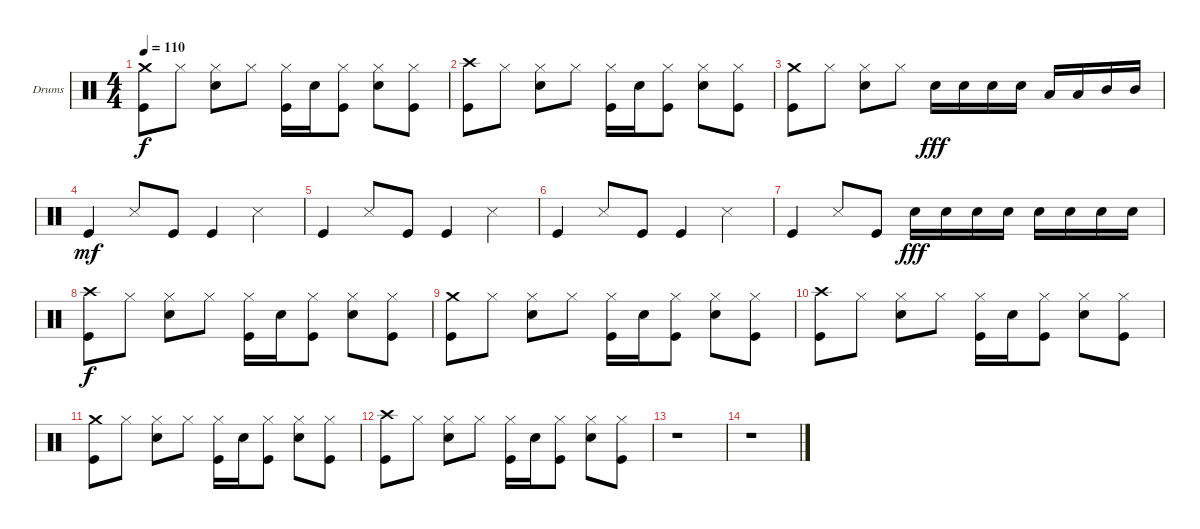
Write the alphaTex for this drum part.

\defaultSystemsLayout 4
\bracketExtendMode groupsimilarinstruments
\firstSystemTrackNameOrientation horizontal
\otherSystemsTrackNameOrientation horizontal
\track ("Drumkit" "Drums") {instrument percussion}
\staff {score}
\articulation defaults
\ts (4 4)
\tempo 110
\clef neutral
\ks c
("Kick (hit)" "Crash medium (hit)").8{dy f} "Hi-Hat (closed)".8 ("Hi-Hat (closed)" "Snare (hit) 2").8 "Hi-Hat (closed)".8 ("Hi-Hat (closed)" "Kick (hit)").16 "Snare (hit) 2".16 ("Hi-Hat (closed)" "Kick (hit)").8 ("Hi-Hat (closed)" "Snare (hit) 2").8 ("Hi-Hat (closed)" "Kick (hit)").8 |
("Kick (hit)" "Crash high (hit)").8 "Hi-Hat (closed)".8 ("Hi-Hat (closed)" "Snare (hit) 2").8 "Hi-Hat (closed)".8 ("Hi-Hat (closed)" "Kick (hit)").16 "Snare (hit) 2".16 ("Hi-Hat (closed)" "Kick (hit)").8 ("Hi-Hat (closed)" "Snare (hit) 2").8 ("Hi-Hat (closed)" "Kick (hit)").8 |
("Kick (hit)" "Crash medium (hit)").8 "Hi-Hat (closed)".8 ("Hi-Hat (closed)" "Snare (hit) 2").8 "Hi-Hat (closed)".8 "Snare (hit) 2".16{dy fff} "Snare (hit) 2".16 "Snare (hit) 2".16 "Snare (hit) 2".16 "Low Tom (hit)".16 "Low Tom (hit)".16 "Mid Tom (hit)".16 "Mid Tom (hit)".16 |
"Kick (hit)".4{dy mf} "Snare (side stick) 3".8 "Kick (hit)".8 "Kick (hit)".4 "Snare (side stick) 3".4 |
"Kick (hit)".4 "Snare (side stick) 3".8 "Kick (hit)".8 "Kick (hit)".4 "Snare (side stick) 3".4 |
"Kick (hit)".4 "Snare (side stick) 3".8 "Kick (hit)".8 "Kick (hit)".4 "Snare (side stick) 3".4 |
"Kick (hit)".4 "Snare (side stick) 3".8 "Kick (hit)".8 "Snare (hit) 2".16{dy fff} "Snare (hit) 2".16 "Snare (hit) 2".16 "Snare (hit) 2".16 "Snare (hit) 2".16 "Snare (hit) 2".16 "Snare (hit) 2".16 "Snare (hit) 2".16 |
("Kick (hit)" "Crash high (hit)").8{dy f} "Hi-Hat (closed)".8 ("Hi-Hat (closed)" "Snare (hit) 2").8 "Hi-Hat (closed)".8 ("Hi-Hat (closed)" "Kick (hit)").16 "Snare (hit) 2".16 ("Hi-Hat (closed)" "Kick (hit)").8 ("Hi-Hat (closed)" "Snare (hit) 2").8 ("Hi-Hat (closed)" "Kick (hit)").8 |
("Kick (hit)" "Crash medium (hit)").8 "Hi-Hat (closed)".8 ("Hi-Hat (closed)" "Snare (hit) 2").8 "Hi-Hat (closed)".8 ("Hi-Hat (closed)" "Kick (hit)").16 "Snare (hit) 2".16 ("Hi-Hat (closed)" "Kick (hit)").8 ("Hi-Hat (closed)" "Snare (hit) 2").8 ("Hi-Hat (closed)" "Kick (hit)").8 |
("Kick (hit)" "Crash high (hit)").8 "Hi-Hat (closed)".8 ("Hi-Hat (closed)" "Snare (hit) 2").8 "Hi-Hat (closed)".8 ("Hi-Hat (closed)" "Kick (hit)").16 "Snare (hit) 2".16 ("Hi-Hat (closed)" "Kick (hit)").8 ("Hi-Hat (closed)" "Snare (hit) 2").8 ("Hi-Hat (closed)" "Kick (hit)").8 |
("Kick (hit)" "Crash medium (hit)").8 "Hi-Hat (closed)".8 ("Hi-Hat (closed)" "Snare (hit) 2").8 "Hi-Hat (closed)".8 ("Hi-Hat (closed)" "Kick (hit)").16 "Snare (hit) 2".16 ("Hi-Hat (closed)" "Kick (hit)").8 ("Hi-Hat (closed)" "Snare (hit) 2").8 ("Hi-Hat (closed)" "Kick (hit)").8 |
("Kick (hit)" "Crash high (hit)").8 "Hi-Hat (closed)".8 ("Hi-Hat (closed)" "Snare (hit) 2").8 "Hi-Hat (closed)".8 ("Hi-Hat (closed)" "Kick (hit)").16 "Snare (hit) 2".16 ("Hi-Hat (closed)" "Kick (hit)").8 ("Hi-Hat (closed)" "Snare (hit) 2").8 ("Hi-Hat (closed)" "Kick (hit)").8 |
r.1 |
r.1
